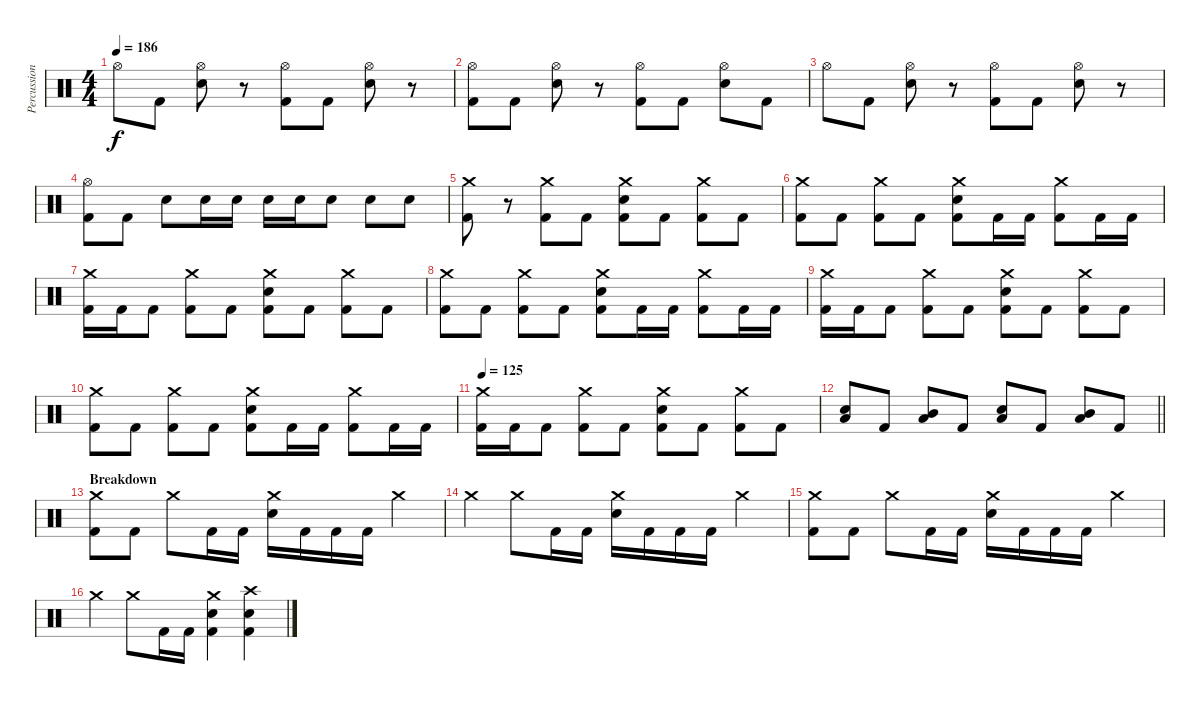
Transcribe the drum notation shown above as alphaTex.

\track ("Percussion" "Percussion") {instrument percussion}
\staff {score}
\articulation defaults
\ts (4 4)
\tempo 186
\clef neutral
\ks c "Hi-Hat (open)".8{dy f} "Kick (hit) 2".8
("Hi-Hat (open)" "Snare (hit) 2").8 r.8 ("Hi-Hat (open)" "Kick (hit) 2").8 "Kick (hit) 2".8 ("Hi-Hat (open)" "Snare (hit) 2").8 r.8 |
("Hi-Hat (open)" "Kick (hit) 2").8 "Kick (hit) 2".8 ("Hi-Hat (open)" "Snare (hit) 2").8 r.8 ("Hi-Hat (open)" "Kick (hit) 2").8 "Kick (hit) 2".8 ("Hi-Hat (open)" "Snare (hit) 2").8 "Kick (hit) 2".8 |
"Hi-Hat (open)".8 "Kick (hit) 2".8 ("Hi-Hat (open)" "Snare (hit) 2").8 r.8 ("Hi-Hat (open)" "Kick (hit) 2").8 "Kick (hit) 2".8 ("Hi-Hat (open)" "Snare (hit) 2").8 r.8 |
("Hi-Hat (open)" "Kick (hit) 2").8 "Kick (hit) 2".8 "Snare (hit) 2".8 "Snare (hit) 2".16 "Snare (hit) 2".16 "Snare (hit) 2".16 "Snare (hit) 2".16 "Snare (hit) 2".8 "Snare (hit) 2".8 "Snare (hit) 2".8 |
("Crash medium (hit)" "Kick (hit) 2").8 r.8 ("Crash medium (hit)" "Kick (hit) 2").8 "Kick (hit) 2".8 ("Crash medium (hit)" "Snare (hit) 2" "Kick (hit) 2").8 "Kick (hit) 2".8 ("Crash medium (hit)" "Kick (hit) 2").8 "Kick (hit) 2".8 |
("Crash medium (hit)" "Kick (hit) 2").8 "Kick (hit) 2".8 ("Crash medium (hit)" "Kick (hit) 2").8 "Kick (hit) 2".8 ("Crash medium (hit)" "Snare (hit) 2" "Kick (hit) 2").8 "Kick (hit) 2".16 "Kick (hit) 2".16 ("Crash medium (hit)" "Kick (hit) 2").8 "Kick (hit) 2".16 "Kick (hit) 2".16 |
("Crash medium (hit)" "Kick (hit) 2").16 "Kick (hit) 2".16 "Kick (hit) 2".8 ("Crash medium (hit)" "Kick (hit) 2").8 "Kick (hit) 2".8 ("Crash medium (hit)" "Snare (hit) 2" "Kick (hit) 2").8 "Kick (hit) 2".8 ("Crash medium (hit)" "Kick (hit) 2").8 "Kick (hit) 2".8 |
("Crash medium (hit)" "Kick (hit) 2").8 "Kick (hit) 2".8 ("Crash medium (hit)" "Kick (hit) 2").8 "Kick (hit) 2".8 ("Crash medium (hit)" "Snare (hit) 2" "Kick (hit) 2").8 "Kick (hit) 2".16 "Kick (hit) 2".16 ("Crash medium (hit)" "Kick (hit) 2").8 "Kick (hit) 2".16 "Kick (hit) 2".16 |
("Crash medium (hit)" "Kick (hit) 2").16 "Kick (hit) 2".16 "Kick (hit) 2".8 ("Crash medium (hit)" "Kick (hit) 2").8 "Kick (hit) 2".8 ("Crash medium (hit)" "Snare (hit) 2" "Kick (hit) 2").8 "Kick (hit) 2".8 ("Crash medium (hit)" "Kick (hit) 2").8 "Kick (hit) 2".8 |
("Crash medium (hit)" "Kick (hit) 2").8 "Kick (hit) 2".8 ("Crash medium (hit)" "Kick (hit) 2").8 "Kick (hit) 2".8 ("Crash medium (hit)" "Snare (hit) 2" "Kick (hit) 2").8 "Kick (hit) 2".16 "Kick (hit) 2".16 ("Crash medium (hit)" "Kick (hit) 2").8 "Kick (hit) 2".16 "Kick (hit) 2".16 |
\tempo 125
("Crash medium (hit)" "Kick (hit) 2").16 "Kick (hit) 2".16 "Kick (hit) 2".8 ("Crash medium (hit)" "Kick (hit) 2").8 "Kick (hit) 2".8 ("Crash medium (hit)" "Snare (hit) 2" "Kick (hit) 2").8 "Kick (hit) 2".8 ("Crash medium (hit)" "Kick (hit) 2").8 "Kick (hit) 2".8 |
\barLineRight lightlight
("Low Tom (hit)" "Snare (hit) 2").8 "Kick (hit) 2".8 ("Mid Tom (hit)" "Low Tom (hit)").8 "Kick (hit) 2".8 ("Low Tom (hit)" "Snare (hit) 2").8 "Kick (hit) 2".8 ("Mid Tom (hit)" "Low Tom (hit)").8 "Kick (hit) 2".8 |
\section ("" "Breakdown")
("Crash medium (hit)" "Kick (hit) 2").8 "Kick (hit) 2".8 "Crash medium (hit)".8 "Kick (hit) 2".16 "Kick (hit) 2".16 ("Crash medium (hit)" "Snare (hit) 2").16 "Kick (hit) 2".16 "Kick (hit) 2".16 "Kick (hit) 2".16 "Crash medium (hit)".4 |
"Crash medium (hit)".4 "Crash medium (hit)".8 "Kick (hit) 2".16 "Kick (hit) 2".16 ("Crash medium (hit)" "Snare (hit) 2").16 "Kick (hit) 2".16 "Kick (hit) 2".16 "Kick (hit) 2".16 "Crash medium (hit)".4 |
("Crash medium (hit)" "Kick (hit) 2").8 "Kick (hit) 2".8 "Crash medium (hit)".8 "Kick (hit) 2".16 "Kick (hit) 2".16 ("Crash medium (hit)" "Snare (hit) 2").16 "Kick (hit) 2".16 "Kick (hit) 2".16 "Kick (hit) 2".16 "Crash medium (hit)".4 |
"Crash medium (hit)".4 "Crash medium (hit)".8 "Kick (hit) 2".16 "Kick (hit) 2".16 ("Crash medium (hit)" "Snare (hit) 2" "Kick (hit) 2").4 ("Crash high (hit)" "Snare (hit) 2" "Kick (hit) 2").4
